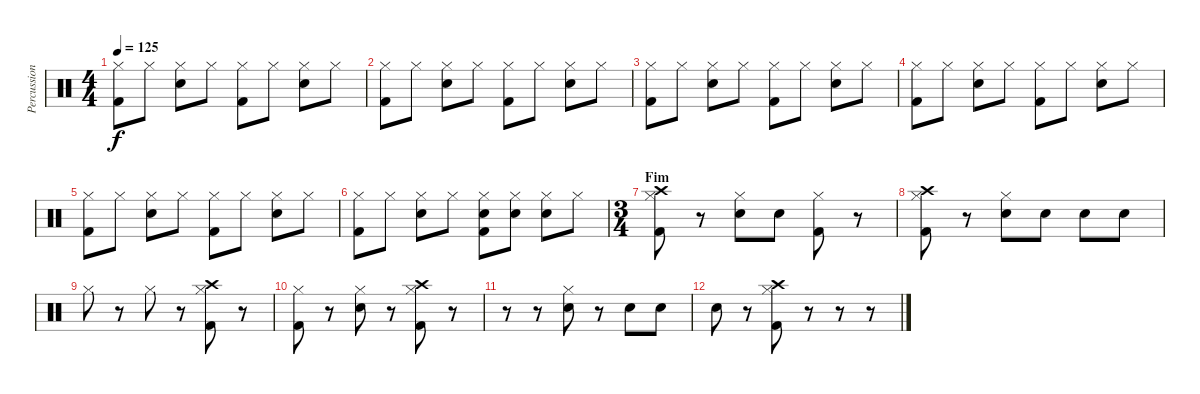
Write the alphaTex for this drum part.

\track ("Percussion" "Percussion") {instrument percussion}
\staff {score}
\articulation defaults
\ts (4 4)
\tempo 125
\clef neutral
\ks c
("Kick (hit) 2" "Hi-Hat (closed)").8{dy f} "Hi-Hat (closed)".8 ("Electric Snare (hit)" "Hi-Hat (closed)").8 "Hi-Hat (closed)".8 ("Kick (hit) 2" "Hi-Hat (closed)").8 "Hi-Hat (closed)".8 ("Electric Snare (hit)" "Hi-Hat (closed)").8 "Hi-Hat (closed)".8 |
("Kick (hit) 2" "Hi-Hat (closed)").8 "Hi-Hat (closed)".8 ("Electric Snare (hit)" "Hi-Hat (closed)").8 "Hi-Hat (closed)".8 ("Kick (hit) 2" "Hi-Hat (closed)").8 "Hi-Hat (closed)".8 ("Electric Snare (hit)" "Hi-Hat (closed)").8 "Hi-Hat (closed)".8 |
("Kick (hit) 2" "Hi-Hat (closed)").8 "Hi-Hat (closed)".8 ("Electric Snare (hit)" "Hi-Hat (closed)").8 "Hi-Hat (closed)".8 ("Kick (hit) 2" "Hi-Hat (closed)").8 "Hi-Hat (closed)".8 ("Electric Snare (hit)" "Hi-Hat (closed)").8 "Hi-Hat (closed)".8 |
("Kick (hit) 2" "Hi-Hat (closed)").8 "Hi-Hat (closed)".8 ("Electric Snare (hit)" "Hi-Hat (closed)").8 "Hi-Hat (closed)".8 ("Kick (hit) 2" "Hi-Hat (closed)").8 "Hi-Hat (closed)".8 ("Electric Snare (hit)" "Hi-Hat (closed)").8 "Hi-Hat (closed)".8 |
("Kick (hit) 2" "Hi-Hat (closed)").8 "Hi-Hat (closed)".8 ("Electric Snare (hit)" "Hi-Hat (closed)").8 "Hi-Hat (closed)".8 ("Kick (hit) 2" "Hi-Hat (closed)").8 "Hi-Hat (closed)".8 ("Electric Snare (hit)" "Hi-Hat (closed)").8 "Hi-Hat (closed)".8 |
("Kick (hit) 2" "Hi-Hat (closed)").8 "Hi-Hat (closed)".8 ("Electric Snare (hit)" "Hi-Hat (closed)").8 "Hi-Hat (closed)".8 ("Kick (hit) 2" "Hi-Hat (closed)" "Electric Snare (hit)").8 ("Electric Snare (hit)" "Hi-Hat (closed)").8 ("Electric Snare (hit)" "Hi-Hat (closed)").8 "Hi-Hat (closed)".8 |
\ts (3 4)
\section ("" "Fim")
("Kick (hit) 2" "Hi-Hat (closed)" "Crash high (hit)").8 r.8 ("Electric Snare (hit)" "Hi-Hat (closed)").8 "Electric Snare (hit)".8 ("Kick (hit) 2" "Hi-Hat (closed)").8 r.8 |
("Kick (hit) 2" "Hi-Hat (closed)" "Crash high (hit)").8 r.8 ("Electric Snare (hit)" "Hi-Hat (closed)").8 "Electric Snare (hit)".8 "Electric Snare (hit)".8 "Electric Snare (hit)".8 |
"Hi-Hat (closed)".8 r.8 "Hi-Hat (closed)".8 r.8 ("Kick (hit) 2" "Hi-Hat (closed)" "Crash high (hit)").8 r.8 |
("Kick (hit) 2" "Hi-Hat (closed)").8 r.8 ("Electric Snare (hit)" "Hi-Hat (closed)").8 r.8 ("Kick (hit) 2" "Hi-Hat (closed)" "Crash high (hit)").8 r.8 |
r.8 r.8 ("Electric Snare (hit)" "Hi-Hat (closed)").8 r.8 "Electric Snare (hit)".8 "Electric Snare (hit)".8 |
"Electric Snare (hit)".8 r.8 ("Kick (hit) 2" "Hi-Hat (closed)" "Crash high (hit)").8 r.8 r.8 r.8
